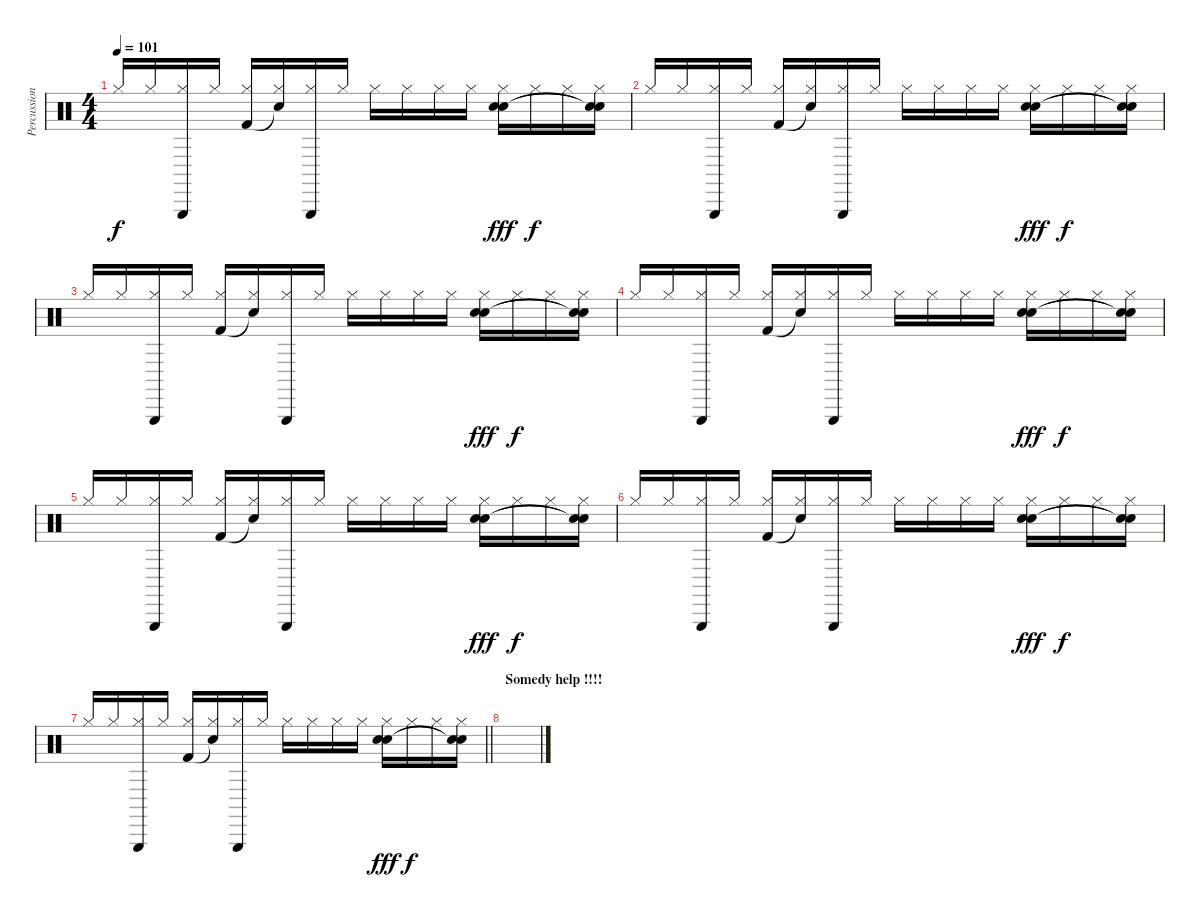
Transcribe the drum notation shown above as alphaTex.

\track ("Percussions" "Percussion") {instrument percussion}
\staff {score}
\articulation defaults
\ts (4 4)
\tempo 101
\clef neutral
\ks c "Hi-Hat (closed)".16{dy f} "Hi-Hat (closed)".16
("Hi-Hat (closed)" "Triangle (hit)").16 "Hi-Hat (closed)".16 ("Hi-Hat (closed)" "Kick (hit) 2").16 ("Hi-Hat (closed)" "Snare (hit)"{t}).16 ("Hi-Hat (closed)" "Triangle (hit)").16 "Hi-Hat (closed)".16 "Hi-Hat (closed)".16 "Hi-Hat (closed)".16 "Hi-Hat (closed)".16 "Hi-Hat (closed)".16 ("Hi-Hat (closed)" "Hand Clap (hit)" "Snare (hit) 2").16{dy fff} "Hi-Hat (closed)".16{dy f} "Hi-Hat (closed)".16 ("Hi-Hat (closed)" "Snare (hit)"{t} "Snare (hit)"{t}).16 |
"Hi-Hat (closed)".16 "Hi-Hat (closed)".16 ("Hi-Hat (closed)" "Triangle (hit)").16 "Hi-Hat (closed)".16 ("Hi-Hat (closed)" "Kick (hit) 2").16 ("Hi-Hat (closed)" "Snare (hit)"{t}).16 ("Hi-Hat (closed)" "Triangle (hit)").16 "Hi-Hat (closed)".16 "Hi-Hat (closed)".16 "Hi-Hat (closed)".16 "Hi-Hat (closed)".16 "Hi-Hat (closed)".16 ("Hi-Hat (closed)" "Hand Clap (hit)" "Snare (hit) 2").16{dy fff} "Hi-Hat (closed)".16{dy f} "Hi-Hat (closed)".16 ("Hi-Hat (closed)" "Snare (hit)"{t} "Snare (hit)"{t}).16 |
"Hi-Hat (closed)".16 "Hi-Hat (closed)".16 ("Hi-Hat (closed)" "Triangle (hit)").16 "Hi-Hat (closed)".16 ("Hi-Hat (closed)" "Kick (hit) 2").16 ("Hi-Hat (closed)" "Snare (hit)"{t}).16 ("Hi-Hat (closed)" "Triangle (hit)").16 "Hi-Hat (closed)".16 "Hi-Hat (closed)".16 "Hi-Hat (closed)".16 "Hi-Hat (closed)".16 "Hi-Hat (closed)".16 ("Hi-Hat (closed)" "Hand Clap (hit)" "Snare (hit) 2").16{dy fff} "Hi-Hat (closed)".16{dy f} "Hi-Hat (closed)".16 ("Hi-Hat (closed)" "Snare (hit)"{t} "Snare (hit)"{t}).16 |
"Hi-Hat (closed)".16 "Hi-Hat (closed)".16 ("Hi-Hat (closed)" "Triangle (hit)").16 "Hi-Hat (closed)".16 ("Hi-Hat (closed)" "Kick (hit) 2").16 ("Hi-Hat (closed)" "Snare (hit)"{t}).16 ("Hi-Hat (closed)" "Triangle (hit)").16 "Hi-Hat (closed)".16 "Hi-Hat (closed)".16 "Hi-Hat (closed)".16 "Hi-Hat (closed)".16 "Hi-Hat (closed)".16 ("Hi-Hat (closed)" "Hand Clap (hit)" "Snare (hit) 2").16{dy fff} "Hi-Hat (closed)".16{dy f} "Hi-Hat (closed)".16 ("Hi-Hat (closed)" "Snare (hit)"{t} "Snare (hit)"{t}).16 |
"Hi-Hat (closed)".16 "Hi-Hat (closed)".16 ("Hi-Hat (closed)" "Triangle (hit)").16 "Hi-Hat (closed)".16 ("Hi-Hat (closed)" "Kick (hit) 2").16 ("Hi-Hat (closed)" "Snare (hit)"{t}).16 ("Hi-Hat (closed)" "Triangle (hit)").16 "Hi-Hat (closed)".16 "Hi-Hat (closed)".16 "Hi-Hat (closed)".16 "Hi-Hat (closed)".16 "Hi-Hat (closed)".16 ("Hi-Hat (closed)" "Hand Clap (hit)" "Snare (hit) 2").16{dy fff} "Hi-Hat (closed)".16{dy f} "Hi-Hat (closed)".16 ("Hi-Hat (closed)" "Snare (hit)"{t} "Snare (hit)"{t}).16 |
"Hi-Hat (closed)".16 "Hi-Hat (closed)".16 ("Hi-Hat (closed)" "Triangle (hit)").16 "Hi-Hat (closed)".16 ("Hi-Hat (closed)" "Kick (hit) 2").16 ("Hi-Hat (closed)" "Snare (hit)"{t}).16 ("Hi-Hat (closed)" "Triangle (hit)").16 "Hi-Hat (closed)".16 "Hi-Hat (closed)".16 "Hi-Hat (closed)".16 "Hi-Hat (closed)".16 "Hi-Hat (closed)".16 ("Hi-Hat (closed)" "Hand Clap (hit)" "Snare (hit) 2").16{dy fff} "Hi-Hat (closed)".16{dy f} "Hi-Hat (closed)".16 ("Hi-Hat (closed)" "Snare (hit)"{t} "Snare (hit)"{t}).16 |
\barLineRight lightlight "Hi-Hat (closed)".16 "Hi-Hat (closed)".16
("Hi-Hat (closed)" "Triangle (hit)").16 "Hi-Hat (closed)".16 ("Hi-Hat (closed)" "Kick (hit) 2").16 ("Hi-Hat (closed)" "Snare (hit)"{t}).16 ("Hi-Hat (closed)" "Triangle (hit)").16 "Hi-Hat (closed)".16 "Hi-Hat (closed)".16 "Hi-Hat (closed)".16 "Hi-Hat (closed)".16 "Hi-Hat (closed)".16 ("Hi-Hat (closed)" "Hand Clap (hit)" "Snare (hit) 2").16{dy fff} "Hi-Hat (closed)".16{dy f} "Hi-Hat (closed)".16 ("Hi-Hat (closed)" "Snare (hit)"{t} "Snare (hit)"{t}).16 |
\section ("" "Somedy help !!!!")
